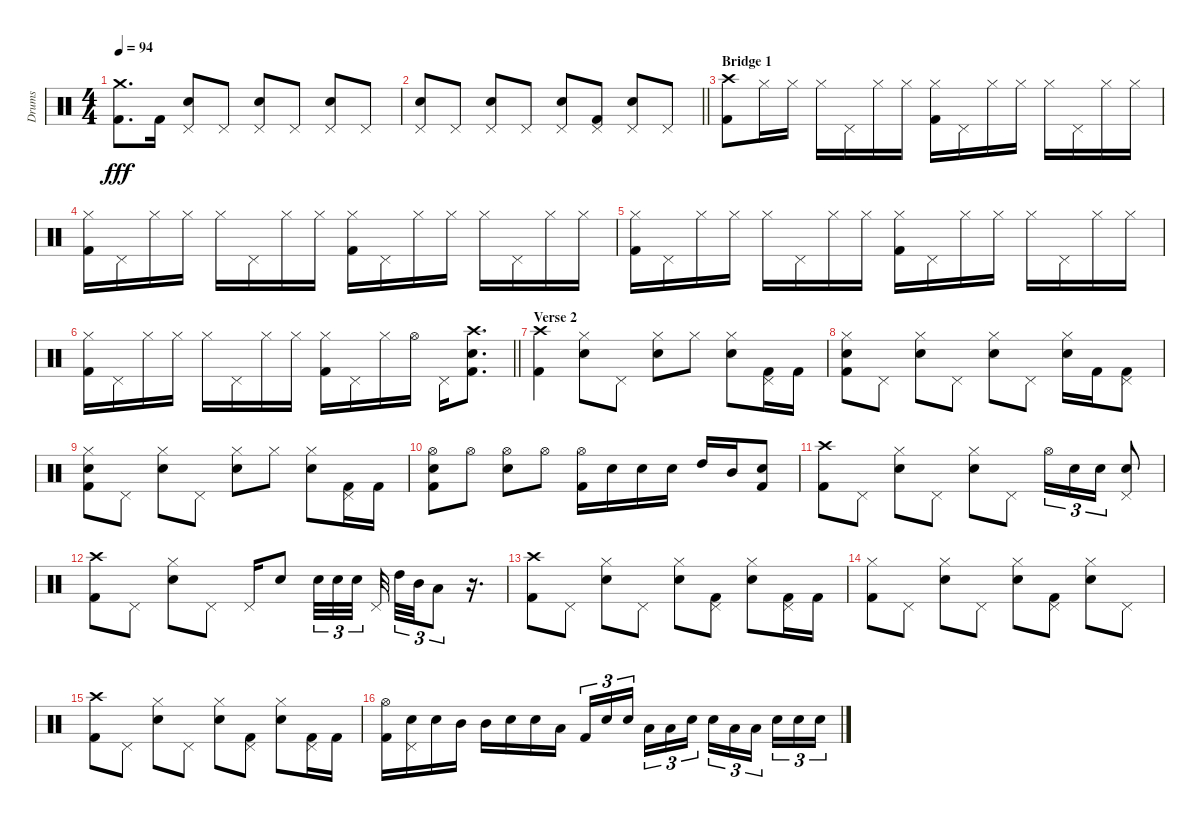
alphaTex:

\track ("Drums" "Drums") {instrument percussion}
\staff {score}
\articulation defaults
\ts (4 4)
\tempo 94
\clef neutral
\ks c
("Crash medium (hit)" "Kick (hit) 2").8{d dy fff} "Kick (hit) 2".16 ("Pedal Hi-Hat (hit)" "Electric Snare (hit)").8 "Pedal Hi-Hat (hit)".8 ("Pedal Hi-Hat (hit)" "Electric Snare (hit)").8 "Pedal Hi-Hat (hit)".8 ("Pedal Hi-Hat (hit)" "Electric Snare (hit)").8 "Pedal Hi-Hat (hit)".8 |
\barLineRight lightlight
("Pedal Hi-Hat (hit)" "Electric Snare (hit)").8 "Pedal Hi-Hat (hit)".8 ("Pedal Hi-Hat (hit)" "Electric Snare (hit)").8 "Pedal Hi-Hat (hit)".8 ("Pedal Hi-Hat (hit)" "Electric Snare (hit)").8 ("Pedal Hi-Hat (hit)" "Kick (hit) 2").8 ("Pedal Hi-Hat (hit)" "Electric Snare (hit)").8 "Pedal Hi-Hat (hit)".8 |
\section ("" "Bridge 1")
("Crash high (hit)" "Kick (hit) 2").8 "Hi-Hat (closed)".16 "Hi-Hat (closed)".16 "Hi-Hat (closed)".16 "Pedal Hi-Hat (hit)".16 "Hi-Hat (closed)".16 "Hi-Hat (closed)".16 ("Hi-Hat (closed)" "Kick (hit) 2").16 "Pedal Hi-Hat (hit)".16 "Hi-Hat (closed)".16 "Hi-Hat (closed)".16 "Hi-Hat (closed)".16 "Pedal Hi-Hat (hit)".16 "Hi-Hat (closed)".16 "Hi-Hat (closed)".16 |
("Hi-Hat (closed)" "Kick (hit) 2").16 "Pedal Hi-Hat (hit)".16 "Hi-Hat (closed)".16 "Hi-Hat (closed)".16 "Hi-Hat (closed)".16 "Pedal Hi-Hat (hit)".16 "Hi-Hat (closed)".16 "Hi-Hat (closed)".16 ("Hi-Hat (closed)" "Kick (hit) 2").16 "Pedal Hi-Hat (hit)".16 "Hi-Hat (closed)".16 "Hi-Hat (closed)".16 "Hi-Hat (closed)".16 "Pedal Hi-Hat (hit)".16 "Hi-Hat (closed)".16 "Hi-Hat (closed)".16 |
("Hi-Hat (closed)" "Kick (hit) 2").16 "Pedal Hi-Hat (hit)".16 "Hi-Hat (closed)".16 "Hi-Hat (closed)".16 "Hi-Hat (closed)".16 "Pedal Hi-Hat (hit)".16 "Hi-Hat (closed)".16 "Hi-Hat (closed)".16 ("Hi-Hat (closed)" "Kick (hit) 2").16 "Pedal Hi-Hat (hit)".16 "Hi-Hat (closed)".16 "Hi-Hat (closed)".16 "Hi-Hat (closed)".16 "Pedal Hi-Hat (hit)".16 "Hi-Hat (closed)".16 "Hi-Hat (closed)".16 |
\barLineRight lightlight
("Hi-Hat (closed)" "Kick (hit) 2").16 "Pedal Hi-Hat (hit)".16 "Hi-Hat (closed)".16 "Hi-Hat (closed)".16 "Hi-Hat (closed)".16 "Pedal Hi-Hat (hit)".16 "Hi-Hat (closed)".16 "Hi-Hat (closed)".16 ("Hi-Hat (closed)" "Kick (hit) 2").16 "Pedal Hi-Hat (hit)".16 "Hi-Hat (closed)".16 "Hi-Hat (open)".16 "Pedal Hi-Hat (hit)".16 ("Crash high (hit)" "Electric Snare (hit)" "Kick (hit) 2").8{d} |
\section ("" "Verse 2")
("Crash high (hit)" "Kick (hit) 2").4 ("Hi-Hat (closed)" "Electric Snare (hit)").8 "Pedal Hi-Hat (hit)".8 ("Hi-Hat (closed)" "Electric Snare (hit)").8 "Hi-Hat (closed)".8 ("Hi-Hat (closed)" "Electric Snare (hit)").8 ("Pedal Hi-Hat (hit)" "Kick (hit) 2").16 "Kick (hit) 2".16 |
("Hi-Hat (closed)" "Electric Snare (hit)" "Kick (hit) 2").8 "Pedal Hi-Hat (hit)".8 ("Hi-Hat (closed)" "Electric Snare (hit)").8 "Pedal Hi-Hat (hit)".8 ("Hi-Hat (closed)" "Electric Snare (hit)").8 "Pedal Hi-Hat (hit)".8 ("Hi-Hat (closed)" "Electric Snare (hit)").16 "Kick (hit) 2".16 ("Pedal Hi-Hat (hit)" "Kick (hit) 2").8 |
("Hi-Hat (closed)" "Electric Snare (hit)" "Kick (hit) 2").8 "Pedal Hi-Hat (hit)".8 ("Hi-Hat (closed)" "Electric Snare (hit)").8 "Pedal Hi-Hat (hit)".8 ("Hi-Hat (closed)" "Electric Snare (hit)").8 "Hi-Hat (closed)".8 ("Hi-Hat (closed)" "Electric Snare (hit)").8 ("Pedal Hi-Hat (hit)" "Kick (hit) 2").16 "Kick (hit) 2".16 |
("Hi-Hat (open)" "Electric Snare (hit)" "Kick (hit) 2").8 "Hi-Hat (open)".8 ("Hi-Hat (open)" "Electric Snare (hit)").8 "Hi-Hat (open)".8 ("Hi-Hat (open)" "Kick (hit) 2").16 "Electric Snare (hit)".16 "Electric Snare (hit)".16 "Electric Snare (hit)".16 "High Tom (hit)".16 "Mid Tom (hit)".16 ("Electric Snare (hit)" "Kick (hit) 2").8 |
("Crash high (hit)" "Kick (hit) 2").8 "Pedal Hi-Hat (hit)".8 ("Hi-Hat (closed)" "Electric Snare (hit)").8 "Pedal Hi-Hat (hit)".8 ("Hi-Hat (closed)" "Electric Snare (hit)").8 "Pedal Hi-Hat (hit)".8 "Hi-Hat (open)".16{tu (3 2)} "Electric Snare (hit)".16{tu (3 2)} "Electric Snare (hit)".16{tu (3 2)} ("Pedal Hi-Hat (hit)" "Electric Snare (hit)").8 |
("Crash high (hit)" "Kick (hit) 2").8 "Pedal Hi-Hat (hit)".8 ("Hi-Hat (closed)" "Electric Snare (hit)").8 "Pedal Hi-Hat (hit)".8 "Pedal Hi-Hat (hit)".16 "Electric Snare (hit)".8 "Electric Snare (hit)".32{tu (3 2)} "Electric Snare (hit)".32{tu (3 2)} "Electric Snare (hit)".32{tu (3 2)} "Pedal Hi-Hat (hit)".32{beam splitsecondary} "High Tom (hit)".32{tu (3 2)} "Mid Tom (hit)".32{tu (3 2)} "Low Tom (hit)".8{tu (3 2)} r.16{d} |
("Crash high (hit)" "Kick (hit) 2").8 "Pedal Hi-Hat (hit)".8 ("Hi-Hat (closed)" "Electric Snare (hit)").8 "Pedal Hi-Hat (hit)".8 ("Hi-Hat (closed)" "Electric Snare (hit)").8 ("Pedal Hi-Hat (hit)" "Kick (hit) 2").8 ("Hi-Hat (closed)" "Electric Snare (hit)").8 ("Pedal Hi-Hat (hit)" "Kick (hit) 2").16 "Kick (hit) 2".16 |
("Hi-Hat (closed)" "Kick (hit) 2").8 "Pedal Hi-Hat (hit)".8 ("Hi-Hat (closed)" "Electric Snare (hit)").8 "Pedal Hi-Hat (hit)".8 ("Hi-Hat (closed)" "Electric Snare (hit)").8 ("Pedal Hi-Hat (hit)" "Kick (hit) 2").8 ("Hi-Hat (closed)" "Electric Snare (hit)").8 "Pedal Hi-Hat (hit)".8 |
("Crash high (hit)" "Kick (hit) 2").8 "Pedal Hi-Hat (hit)".8 ("Hi-Hat (closed)" "Electric Snare (hit)").8 "Pedal Hi-Hat (hit)".8 ("Hi-Hat (closed)" "Electric Snare (hit)").8 ("Pedal Hi-Hat (hit)" "Kick (hit) 2").8 ("Hi-Hat (closed)" "Electric Snare (hit)").8 ("Pedal Hi-Hat (hit)" "Kick (hit) 2").16 "Kick (hit) 2".16 |
("Hi-Hat (open)" "Kick (hit) 2").16 ("Pedal Hi-Hat (hit)" "Electric Snare (hit)").16 "Electric Snare (hit)".16 "Mid Tom (hit)".16 "Mid Tom (hit)".16 "Electric Snare (hit)".16 "Electric Snare (hit)".16 "Low Tom (hit)".16 "Kick (hit) 2".16{tu (3 2)} "Electric Snare (hit)".16{tu (3 2)} "Electric Snare (hit)".16{tu (3 2) beam splitsecondary} "Low Tom (hit)".16{tu (3 2)} "Low Tom (hit)".16{tu (3 2)} "Electric Snare (hit)".16{tu (3 2)} "Electric Snare (hit)".16{tu (3 2)} "Low Tom (hit)".16{tu (3 2)} "Low Tom (hit)".16{tu (3 2) beam splitsecondary} "Electric Snare (hit)".16{tu (3 2)} "Electric Snare (hit)".16{tu (3 2)} "Electric Snare (hit)".16{tu (3 2)}
